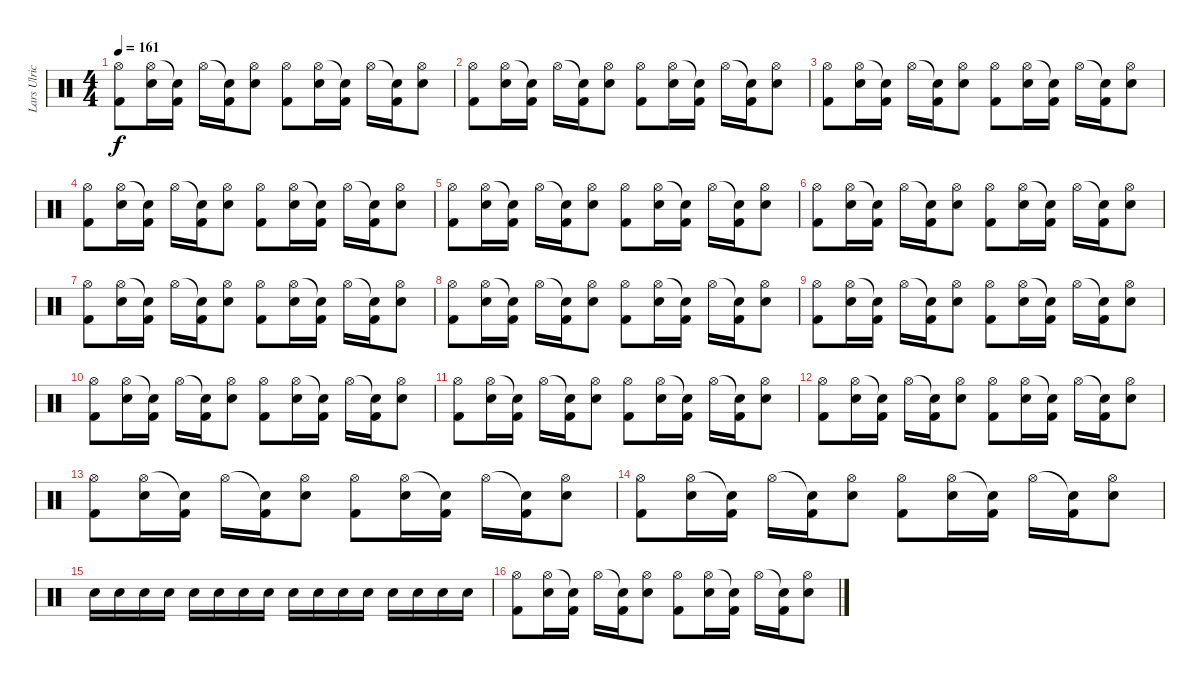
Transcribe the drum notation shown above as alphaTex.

\track ("Lars Ulrich" "Lars Ulric") {instrument percussion}
\staff {score}
\articulation defaults
\ts (4 4)
\tempo 161
\clef neutral
\ks c
("Hi-Hat (open)" "Kick (hit) 2").8{dy f} ("Hi-Hat (open)" "Electric Snare (hit)").16 ("Snare (hit)"{t} "Kick (hit) 2").16 "Hi-Hat (open)".16 ("Snare (hit)"{t} "Kick (hit) 2").16 ("Hi-Hat (open)" "Electric Snare (hit)").8 ("Hi-Hat (open)" "Kick (hit) 2").8 ("Hi-Hat (open)" "Electric Snare (hit)").16 ("Snare (hit)"{t} "Kick (hit) 2").16 "Hi-Hat (open)".16 ("Snare (hit)"{t} "Kick (hit) 2").16 ("Hi-Hat (open)" "Electric Snare (hit)").8 |
("Hi-Hat (open)" "Kick (hit) 2").8 ("Hi-Hat (open)" "Electric Snare (hit)").16 ("Snare (hit)"{t} "Kick (hit) 2").16 "Hi-Hat (open)".16 ("Snare (hit)"{t} "Kick (hit) 2").16 ("Hi-Hat (open)" "Electric Snare (hit)").8 ("Hi-Hat (open)" "Kick (hit) 2").8 ("Hi-Hat (open)" "Electric Snare (hit)").16 ("Snare (hit)"{t} "Kick (hit) 2").16 "Hi-Hat (open)".16 ("Snare (hit)"{t} "Kick (hit) 2").16 ("Hi-Hat (open)" "Electric Snare (hit)").8 |
("Hi-Hat (open)" "Kick (hit) 2").8 ("Hi-Hat (open)" "Electric Snare (hit)").16 ("Snare (hit)"{t} "Kick (hit) 2").16 "Hi-Hat (open)".16 ("Snare (hit)"{t} "Kick (hit) 2").16 ("Hi-Hat (open)" "Electric Snare (hit)").8 ("Hi-Hat (open)" "Kick (hit) 2").8 ("Hi-Hat (open)" "Electric Snare (hit)").16 ("Snare (hit)"{t} "Kick (hit) 2").16 "Hi-Hat (open)".16 ("Snare (hit)"{t} "Kick (hit) 2").16 ("Hi-Hat (open)" "Electric Snare (hit)").8 |
("Hi-Hat (open)" "Kick (hit) 2").8 ("Hi-Hat (open)" "Electric Snare (hit)").16 ("Snare (hit)"{t} "Kick (hit) 2").16 "Hi-Hat (open)".16 ("Snare (hit)"{t} "Kick (hit) 2").16 ("Hi-Hat (open)" "Electric Snare (hit)").8 ("Hi-Hat (open)" "Kick (hit) 2").8 ("Hi-Hat (open)" "Electric Snare (hit)").16 ("Snare (hit)"{t} "Kick (hit) 2").16 "Hi-Hat (open)".16 ("Snare (hit)"{t} "Kick (hit) 2").16 ("Hi-Hat (open)" "Electric Snare (hit)").8 |
("Hi-Hat (open)" "Kick (hit) 2").8 ("Hi-Hat (open)" "Electric Snare (hit)").16 ("Snare (hit)"{t} "Kick (hit) 2").16 "Hi-Hat (open)".16 ("Snare (hit)"{t} "Kick (hit) 2").16 ("Hi-Hat (open)" "Electric Snare (hit)").8 ("Hi-Hat (open)" "Kick (hit) 2").8 ("Hi-Hat (open)" "Electric Snare (hit)").16 ("Snare (hit)"{t} "Kick (hit) 2").16 "Hi-Hat (open)".16 ("Snare (hit)"{t} "Kick (hit) 2").16 ("Hi-Hat (open)" "Electric Snare (hit)").8 |
("Hi-Hat (open)" "Kick (hit) 2").8 ("Hi-Hat (open)" "Electric Snare (hit)").16 ("Snare (hit)"{t} "Kick (hit) 2").16 "Hi-Hat (open)".16 ("Snare (hit)"{t} "Kick (hit) 2").16 ("Hi-Hat (open)" "Electric Snare (hit)").8 ("Hi-Hat (open)" "Kick (hit) 2").8 ("Hi-Hat (open)" "Electric Snare (hit)").16 ("Snare (hit)"{t} "Kick (hit) 2").16 "Hi-Hat (open)".16 ("Snare (hit)"{t} "Kick (hit) 2").16 ("Hi-Hat (open)" "Electric Snare (hit)").8 |
("Hi-Hat (open)" "Kick (hit) 2").8 ("Hi-Hat (open)" "Electric Snare (hit)").16 ("Snare (hit)"{t} "Kick (hit) 2").16 "Hi-Hat (open)".16 ("Snare (hit)"{t} "Kick (hit) 2").16 ("Hi-Hat (open)" "Electric Snare (hit)").8 ("Hi-Hat (open)" "Kick (hit) 2").8 ("Hi-Hat (open)" "Electric Snare (hit)").16 ("Snare (hit)"{t} "Kick (hit) 2").16 "Hi-Hat (open)".16 ("Snare (hit)"{t} "Kick (hit) 2").16 ("Hi-Hat (open)" "Electric Snare (hit)").8 |
("Hi-Hat (open)" "Kick (hit) 2").8 ("Hi-Hat (open)" "Electric Snare (hit)").16 ("Snare (hit)"{t} "Kick (hit) 2").16 "Hi-Hat (open)".16 ("Snare (hit)"{t} "Kick (hit) 2").16 ("Hi-Hat (open)" "Electric Snare (hit)").8 ("Hi-Hat (open)" "Kick (hit) 2").8 ("Hi-Hat (open)" "Electric Snare (hit)").16 ("Snare (hit)"{t} "Kick (hit) 2").16 "Hi-Hat (open)".16 ("Snare (hit)"{t} "Kick (hit) 2").16 ("Hi-Hat (open)" "Electric Snare (hit)").8 |
("Hi-Hat (open)" "Kick (hit) 2").8 ("Hi-Hat (open)" "Electric Snare (hit)").16 ("Snare (hit)"{t} "Kick (hit) 2").16 "Hi-Hat (open)".16 ("Snare (hit)"{t} "Kick (hit) 2").16 ("Hi-Hat (open)" "Electric Snare (hit)").8 ("Hi-Hat (open)" "Kick (hit) 2").8 ("Hi-Hat (open)" "Electric Snare (hit)").16 ("Snare (hit)"{t} "Kick (hit) 2").16 "Hi-Hat (open)".16 ("Snare (hit)"{t} "Kick (hit) 2").16 ("Hi-Hat (open)" "Electric Snare (hit)").8 |
("Hi-Hat (open)" "Kick (hit) 2").8 ("Hi-Hat (open)" "Electric Snare (hit)").16 ("Snare (hit)"{t} "Kick (hit) 2").16 "Hi-Hat (open)".16 ("Snare (hit)"{t} "Kick (hit) 2").16 ("Hi-Hat (open)" "Electric Snare (hit)").8 ("Hi-Hat (open)" "Kick (hit) 2").8 ("Hi-Hat (open)" "Electric Snare (hit)").16 ("Snare (hit)"{t} "Kick (hit) 2").16 "Hi-Hat (open)".16 ("Snare (hit)"{t} "Kick (hit) 2").16 ("Hi-Hat (open)" "Electric Snare (hit)").8 |
("Hi-Hat (open)" "Kick (hit) 2").8 ("Hi-Hat (open)" "Electric Snare (hit)").16 ("Snare (hit)"{t} "Kick (hit) 2").16 "Hi-Hat (open)".16 ("Snare (hit)"{t} "Kick (hit) 2").16 ("Hi-Hat (open)" "Electric Snare (hit)").8 ("Hi-Hat (open)" "Kick (hit) 2").8 ("Hi-Hat (open)" "Electric Snare (hit)").16 ("Snare (hit)"{t} "Kick (hit) 2").16 "Hi-Hat (open)".16 ("Snare (hit)"{t} "Kick (hit) 2").16 ("Hi-Hat (open)" "Electric Snare (hit)").8 |
("Hi-Hat (open)" "Kick (hit) 2").8 ("Hi-Hat (open)" "Electric Snare (hit)").16 ("Snare (hit)"{t} "Kick (hit) 2").16 "Hi-Hat (open)".16 ("Snare (hit)"{t} "Kick (hit) 2").16 ("Hi-Hat (open)" "Electric Snare (hit)").8 ("Hi-Hat (open)" "Kick (hit) 2").8 ("Hi-Hat (open)" "Electric Snare (hit)").16 ("Snare (hit)"{t} "Kick (hit) 2").16 "Hi-Hat (open)".16 ("Snare (hit)"{t} "Kick (hit) 2").16 ("Hi-Hat (open)" "Electric Snare (hit)").8 |
("Hi-Hat (open)" "Kick (hit) 2").8 ("Hi-Hat (open)" "Electric Snare (hit)").16 ("Snare (hit)"{t} "Kick (hit) 2").16 "Hi-Hat (open)".16 ("Snare (hit)"{t} "Kick (hit) 2").16 ("Hi-Hat (open)" "Electric Snare (hit)").8 ("Hi-Hat (open)" "Kick (hit) 2").8 ("Hi-Hat (open)" "Electric Snare (hit)").16 ("Snare (hit)"{t} "Kick (hit) 2").16 "Hi-Hat (open)".16 ("Snare (hit)"{t} "Kick (hit) 2").16 ("Hi-Hat (open)" "Electric Snare (hit)").8 |
("Hi-Hat (open)" "Kick (hit) 2").8 ("Hi-Hat (open)" "Electric Snare (hit)").16 ("Snare (hit)"{t} "Kick (hit) 2").16 "Hi-Hat (open)".16 ("Snare (hit)"{t} "Kick (hit) 2").16 ("Hi-Hat (open)" "Electric Snare (hit)").8 ("Hi-Hat (open)" "Kick (hit) 2").8 ("Hi-Hat (open)" "Electric Snare (hit)").16 ("Snare (hit)"{t} "Kick (hit) 2").16 "Hi-Hat (open)".16 ("Snare (hit)"{t} "Kick (hit) 2").16 ("Hi-Hat (open)" "Electric Snare (hit)").8 |
"Electric Snare (hit)".16 "Electric Snare (hit)".16 "Electric Snare (hit)".16 "Electric Snare (hit)".16 "Electric Snare (hit)".16 "Electric Snare (hit)".16 "Electric Snare (hit)".16 "Electric Snare (hit)".16 "Electric Snare (hit)".16 "Electric Snare (hit)".16 "Electric Snare (hit)".16 "Electric Snare (hit)".16 "Electric Snare (hit)".16 "Electric Snare (hit)".16 "Electric Snare (hit)".16 "Electric Snare (hit)".16 |
("Hi-Hat (open)" "Kick (hit) 2").8 ("Hi-Hat (open)" "Electric Snare (hit)").16 ("Snare (hit)"{t} "Kick (hit) 2").16 "Hi-Hat (open)".16 ("Snare (hit)"{t} "Kick (hit) 2").16 ("Hi-Hat (open)" "Electric Snare (hit)").8 ("Hi-Hat (open)" "Kick (hit) 2").8 ("Hi-Hat (open)" "Electric Snare (hit)").16 ("Snare (hit)"{t} "Kick (hit) 2").16 "Hi-Hat (open)".16 ("Snare (hit)"{t} "Kick (hit) 2").16 ("Hi-Hat (open)" "Electric Snare (hit)").8
